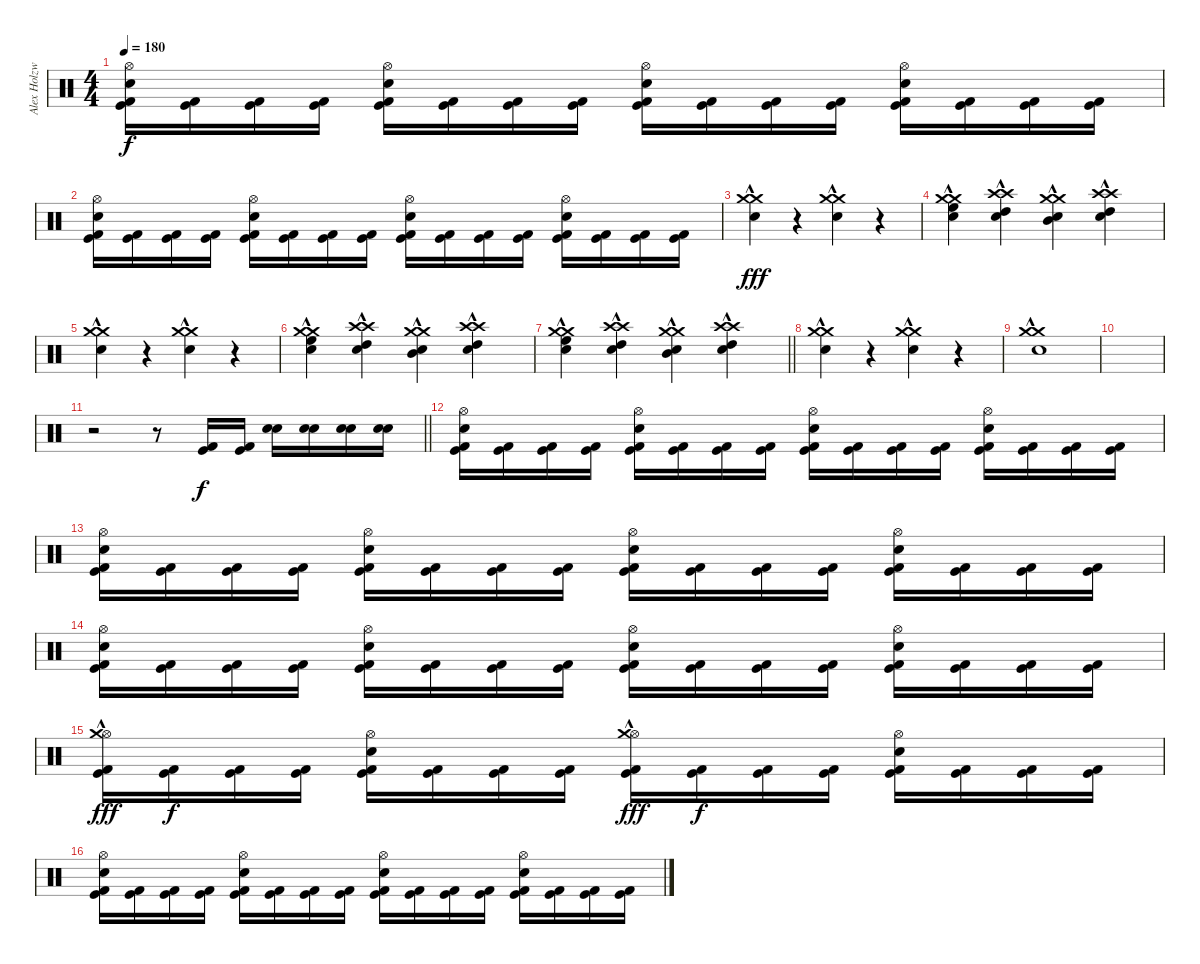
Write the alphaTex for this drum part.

\track ("Alex Holzwarth" "Alex Holzw") {instrument percussion}
\staff {score}
\articulation defaults
\ts (4 4)
\tempo 180
\clef neutral
\ks c
("Kick (hit) 2" "Kick (hit)" "Snare (hit) 2" "Hi-Hat (open)").16{dy f} ("Kick (hit) 2" "Kick (hit)").16 ("Kick (hit) 2" "Kick (hit)").16 ("Kick (hit) 2" "Kick (hit)").16 ("Kick (hit) 2" "Kick (hit)" "Hi-Hat (open)" "Snare (hit) 2").16 ("Kick (hit) 2" "Kick (hit)").16 ("Kick (hit) 2" "Kick (hit)").16 ("Kick (hit) 2" "Kick (hit)").16 ("Kick (hit) 2" "Kick (hit)" "Hi-Hat (open)" "Snare (hit) 2").16 ("Kick (hit) 2" "Kick (hit)").16 ("Kick (hit) 2" "Kick (hit)").16 ("Kick (hit) 2" "Kick (hit)").16 ("Kick (hit) 2" "Kick (hit)" "Hi-Hat (open)" "Snare (hit) 2").16 ("Kick (hit) 2" "Kick (hit)").16 ("Kick (hit) 2" "Kick (hit)").16 ("Kick (hit) 2" "Kick (hit)").16 |
("Kick (hit) 2" "Kick (hit)" "Snare (hit) 2" "Hi-Hat (open)").16 ("Kick (hit) 2" "Kick (hit)").16 ("Kick (hit) 2" "Kick (hit)").16 ("Kick (hit) 2" "Kick (hit)").16 ("Kick (hit) 2" "Kick (hit)" "Hi-Hat (open)" "Snare (hit) 2").16 ("Kick (hit) 2" "Kick (hit)").16 ("Kick (hit) 2" "Kick (hit)").16 ("Kick (hit) 2" "Kick (hit)").16 ("Kick (hit) 2" "Kick (hit)" "Hi-Hat (open)" "Snare (hit) 2").16 ("Kick (hit) 2" "Kick (hit)").16 ("Kick (hit) 2" "Kick (hit)").16 ("Kick (hit) 2" "Kick (hit)").16 ("Kick (hit) 2" "Kick (hit)" "Hi-Hat (open)" "Snare (hit) 2").16 ("Kick (hit) 2" "Kick (hit)").16 ("Kick (hit) 2" "Kick (hit)").16 ("Kick (hit) 2" "Kick (hit)").16 |
("Crash medium (hit)"{hac} "Snare (hit) 2" "Crash medium (hit)"{hac}).4{dy fff volume 16} r.4{volume 0} ("Crash medium (hit)"{hac} "Snare (hit) 2" "Crash medium (hit)"{hac}).4{volume 16} r.4{volume 0} |
("High Floor Tom (hit)"{hac} "Crash medium (hit)"{hac} "Snare (hit) 2" "Crash medium (hit)"{hac}).4{volume 16} ("High Tom (hit)"{hac} "Crash high (hit)"{hac} "Snare (hit) 2" "Crash high (hit)"{hac}).4{volume 16} ("Mid Tom (hit)"{hac} "Crash medium (hit)"{hac} "Snare (hit) 2" "Crash medium (hit)"{hac}).4{volume 16} ("High Tom (hit)"{hac} "Crash high (hit)"{hac} "Snare (hit) 2" "Crash high (hit)"{hac}).4{volume 16} |
("Crash medium (hit)"{hac} "Snare (hit) 2" "Crash medium (hit)"{hac}).4{volume 16} r.4{volume 0} ("Crash medium (hit)"{hac} "Snare (hit) 2" "Crash medium (hit)"{hac}).4{volume 16} r.4{volume 0} |
("High Floor Tom (hit)"{hac} "Crash medium (hit)"{hac} "Snare (hit) 2" "Crash medium (hit)"{hac}).4{volume 16} ("High Tom (hit)"{hac} "Crash high (hit)"{hac} "Snare (hit) 2" "Crash high (hit)"{hac}).4{volume 16} ("Mid Tom (hit)"{hac} "Crash medium (hit)"{hac} "Snare (hit) 2" "Crash medium (hit)"{hac}).4{volume 16} ("High Tom (hit)"{hac} "Crash high (hit)"{hac} "Snare (hit) 2" "Crash high (hit)"{hac}).4{volume 16} |
\barLineRight lightlight
("High Floor Tom (hit)"{hac} "Crash medium (hit)"{hac} "Snare (hit) 2" "Crash medium (hit)"{hac}).4{volume 16} ("High Tom (hit)"{hac} "Crash high (hit)"{hac} "Snare (hit) 2" "Crash high (hit)"{hac}).4{volume 16} ("Mid Tom (hit)"{hac} "Crash medium (hit)"{hac} "Snare (hit) 2" "Crash medium (hit)"{hac}).4{volume 16} ("High Tom (hit)"{hac} "Crash high (hit)"{hac} "Snare (hit) 2" "Crash high (hit)"{hac}).4{volume 16} |
("Crash medium (hit)"{hac} "Snare (hit) 2" "Crash medium (hit)"{hac}).4{volume 16} r.4{volume 0} ("Crash medium (hit)"{hac} "Snare (hit) 2" "Crash medium (hit)"{hac}).4{volume 16} r.4{volume 0} |
("Crash medium (hit)"{hac} "Snare (hit) 2" "Crash medium (hit)"{hac}).1{volume 16} |
|
\barLineRight lightlight
r.2 r.8 ("Kick (hit) 2" "Kick (hit)").16{dy f} ("Kick (hit) 2" "Kick (hit)").16 ("Snare (hit) 2" "Electric Snare (hit)").16 ("Snare (hit) 2" "Electric Snare (hit)").16 ("Snare (hit) 2" "Electric Snare (hit)").16 ("Snare (hit) 2" "Electric Snare (hit)").16 |
("Kick (hit) 2" "Kick (hit)" "Snare (hit) 2" "Hi-Hat (open)").16 ("Kick (hit) 2" "Kick (hit)").16 ("Kick (hit) 2" "Kick (hit)").16 ("Kick (hit) 2" "Kick (hit)").16 ("Kick (hit) 2" "Kick (hit)" "Hi-Hat (open)" "Snare (hit) 2").16 ("Kick (hit) 2" "Kick (hit)").16 ("Kick (hit) 2" "Kick (hit)").16 ("Kick (hit) 2" "Kick (hit)").16 ("Kick (hit) 2" "Kick (hit)" "Hi-Hat (open)" "Snare (hit) 2").16 ("Kick (hit) 2" "Kick (hit)").16 ("Kick (hit) 2" "Kick (hit)").16 ("Kick (hit) 2" "Kick (hit)").16 ("Kick (hit) 2" "Kick (hit)" "Hi-Hat (open)" "Snare (hit) 2").16 ("Kick (hit) 2" "Kick (hit)").16 ("Kick (hit) 2" "Kick (hit)").16 ("Kick (hit) 2" "Kick (hit)").16 |
("Kick (hit) 2" "Kick (hit)" "Snare (hit) 2" "Hi-Hat (open)").16 ("Kick (hit) 2" "Kick (hit)").16 ("Kick (hit) 2" "Kick (hit)").16 ("Kick (hit) 2" "Kick (hit)").16 ("Kick (hit) 2" "Kick (hit)" "Hi-Hat (open)" "Snare (hit) 2").16 ("Kick (hit) 2" "Kick (hit)").16 ("Kick (hit) 2" "Kick (hit)").16 ("Kick (hit) 2" "Kick (hit)").16 ("Kick (hit) 2" "Kick (hit)" "Hi-Hat (open)" "Snare (hit) 2").16 ("Kick (hit) 2" "Kick (hit)").16 ("Kick (hit) 2" "Kick (hit)").16 ("Kick (hit) 2" "Kick (hit)").16 ("Kick (hit) 2" "Kick (hit)" "Hi-Hat (open)" "Snare (hit) 2").16 ("Kick (hit) 2" "Kick (hit)").16 ("Kick (hit) 2" "Kick (hit)").16 ("Kick (hit) 2" "Kick (hit)").16 |
("Kick (hit) 2" "Kick (hit)" "Snare (hit) 2" "Hi-Hat (open)").16 ("Kick (hit) 2" "Kick (hit)").16 ("Kick (hit) 2" "Kick (hit)").16 ("Kick (hit) 2" "Kick (hit)").16 ("Kick (hit) 2" "Kick (hit)" "Hi-Hat (open)" "Snare (hit) 2").16 ("Kick (hit) 2" "Kick (hit)").16 ("Kick (hit) 2" "Kick (hit)").16 ("Kick (hit) 2" "Kick (hit)").16 ("Kick (hit) 2" "Kick (hit)" "Hi-Hat (open)" "Snare (hit) 2").16 ("Kick (hit) 2" "Kick (hit)").16 ("Kick (hit) 2" "Kick (hit)").16 ("Kick (hit) 2" "Kick (hit)").16 ("Kick (hit) 2" "Kick (hit)" "Hi-Hat (open)" "Snare (hit) 2").16 ("Kick (hit) 2" "Kick (hit)").16 ("Kick (hit) 2" "Kick (hit)").16 ("Kick (hit) 2" "Kick (hit)").16 |
("Kick (hit) 2" "Kick (hit)" "Hi-Hat (open)" "Crash medium (hit)"{hac}).16{dy fff} ("Kick (hit) 2" "Kick (hit)").16{dy f} ("Kick (hit) 2" "Kick (hit)").16 ("Kick (hit) 2" "Kick (hit)").16 ("Kick (hit) 2" "Kick (hit)" "Hi-Hat (open)" "Snare (hit) 2").16 ("Kick (hit) 2" "Kick (hit)").16 ("Kick (hit) 2" "Kick (hit)").16 ("Kick (hit) 2" "Kick (hit)").16 ("Kick (hit) 2" "Kick (hit)" "Hi-Hat (open)" "Crash medium (hit)"{hac}).16{dy fff} ("Kick (hit) 2" "Kick (hit)").16{dy f} ("Kick (hit) 2" "Kick (hit)").16 ("Kick (hit) 2" "Kick (hit)").16 ("Kick (hit) 2" "Kick (hit)" "Hi-Hat (open)" "Snare (hit) 2").16 ("Kick (hit) 2" "Kick (hit)").16 ("Kick (hit) 2" "Kick (hit)").16 ("Kick (hit) 2" "Kick (hit)").16 |
("Kick (hit) 2" "Kick (hit)" "Snare (hit) 2" "Hi-Hat (open)").16 ("Kick (hit) 2" "Kick (hit)").16 ("Kick (hit) 2" "Kick (hit)").16 ("Kick (hit) 2" "Kick (hit)").16 ("Kick (hit) 2" "Kick (hit)" "Hi-Hat (open)" "Snare (hit) 2").16 ("Kick (hit) 2" "Kick (hit)").16 ("Kick (hit) 2" "Kick (hit)").16 ("Kick (hit) 2" "Kick (hit)").16 ("Kick (hit) 2" "Kick (hit)" "Hi-Hat (open)" "Snare (hit) 2").16 ("Kick (hit) 2" "Kick (hit)").16 ("Kick (hit) 2" "Kick (hit)").16 ("Kick (hit) 2" "Kick (hit)").16 ("Kick (hit) 2" "Kick (hit)" "Hi-Hat (open)" "Snare (hit) 2").16 ("Kick (hit) 2" "Kick (hit)").16 ("Kick (hit) 2" "Kick (hit)").16 ("Kick (hit) 2" "Kick (hit)").16
